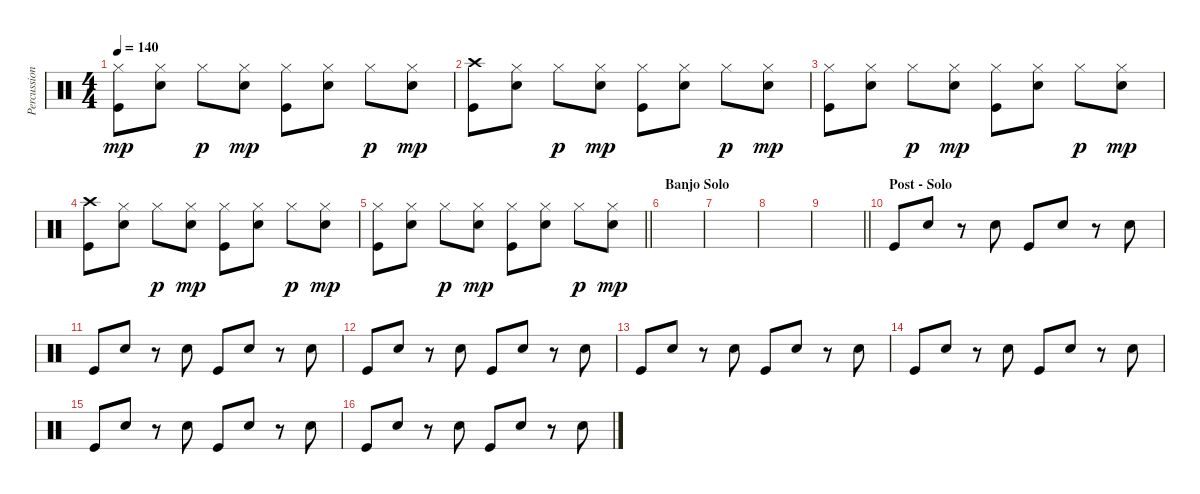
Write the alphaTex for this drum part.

\track ("Percussion" "Percussion") {instrument percussion}
\staff {score}
\articulation defaults
\ts (4 4)
\tempo 140
\clef neutral
\ks c
("Hi-Hat (closed)" "Kick (hit)").8{dy mp} ("Hi-Hat (closed)" "Electric Snare (hit)").8 "Hi-Hat (closed)".8{dy p} ("Hi-Hat (closed)" "Electric Snare (hit)").8{dy mp} ("Hi-Hat (closed)" "Kick (hit)").8 ("Hi-Hat (closed)" "Electric Snare (hit)").8 "Hi-Hat (closed)".8{dy p} ("Hi-Hat (closed)" "Electric Snare (hit)").8{dy mp} |
("Crash high (hit)" "Kick (hit)").8 ("Hi-Hat (closed)" "Electric Snare (hit)").8 "Hi-Hat (closed)".8{dy p} ("Hi-Hat (closed)" "Electric Snare (hit)").8{dy mp} ("Hi-Hat (closed)" "Kick (hit)").8 ("Hi-Hat (closed)" "Electric Snare (hit)").8 "Hi-Hat (closed)".8{dy p} ("Hi-Hat (closed)" "Electric Snare (hit)").8{dy mp} |
("Hi-Hat (closed)" "Kick (hit)").8 ("Hi-Hat (closed)" "Electric Snare (hit)").8 "Hi-Hat (closed)".8{dy p} ("Hi-Hat (closed)" "Electric Snare (hit)").8{dy mp} ("Hi-Hat (closed)" "Kick (hit)").8 ("Hi-Hat (closed)" "Electric Snare (hit)").8 "Hi-Hat (closed)".8{dy p} ("Hi-Hat (closed)" "Electric Snare (hit)").8{dy mp} |
("Crash high (hit)" "Kick (hit)").8 ("Hi-Hat (closed)" "Electric Snare (hit)").8 "Hi-Hat (closed)".8{dy p} ("Hi-Hat (closed)" "Electric Snare (hit)").8{dy mp} ("Hi-Hat (closed)" "Kick (hit)").8 ("Hi-Hat (closed)" "Electric Snare (hit)").8 "Hi-Hat (closed)".8{dy p} ("Hi-Hat (closed)" "Electric Snare (hit)").8{dy mp} |
\barLineRight lightlight
("Hi-Hat (closed)" "Kick (hit)").8 ("Hi-Hat (closed)" "Electric Snare (hit)").8 "Hi-Hat (closed)".8{dy p} ("Hi-Hat (closed)" "Electric Snare (hit)").8{dy mp} ("Hi-Hat (closed)" "Kick (hit)").8 ("Hi-Hat (closed)" "Electric Snare (hit)").8 "Hi-Hat (closed)".8{dy p} ("Hi-Hat (closed)" "Electric Snare (hit)").8{dy mp} |
\section ("" "Banjo Solo")
|
|
|
\barLineRight lightlight
|
\section ("" "Post - Solo")
"Kick (hit)".8 "Electric Snare (hit)".8 r.8 "Electric Snare (hit)".8 "Kick (hit)".8 "Electric Snare (hit)".8 r.8 "Electric Snare (hit)".8 |
"Kick (hit)".8 "Electric Snare (hit)".8 r.8 "Electric Snare (hit)".8 "Kick (hit)".8 "Electric Snare (hit)".8 r.8 "Electric Snare (hit)".8 |
"Kick (hit)".8 "Electric Snare (hit)".8 r.8 "Electric Snare (hit)".8 "Kick (hit)".8 "Electric Snare (hit)".8 r.8 "Electric Snare (hit)".8 |
"Kick (hit)".8 "Electric Snare (hit)".8 r.8 "Electric Snare (hit)".8 "Kick (hit)".8 "Electric Snare (hit)".8 r.8 "Electric Snare (hit)".8 |
"Kick (hit)".8 "Electric Snare (hit)".8 r.8 "Electric Snare (hit)".8 "Kick (hit)".8 "Electric Snare (hit)".8 r.8 "Electric Snare (hit)".8 |
"Kick (hit)".8 "Electric Snare (hit)".8 r.8 "Electric Snare (hit)".8 "Kick (hit)".8 "Electric Snare (hit)".8 r.8 "Electric Snare (hit)".8 |
"Kick (hit)".8 "Electric Snare (hit)".8 r.8 "Electric Snare (hit)".8 "Kick (hit)".8 "Electric Snare (hit)".8 r.8 "Electric Snare (hit)".8
